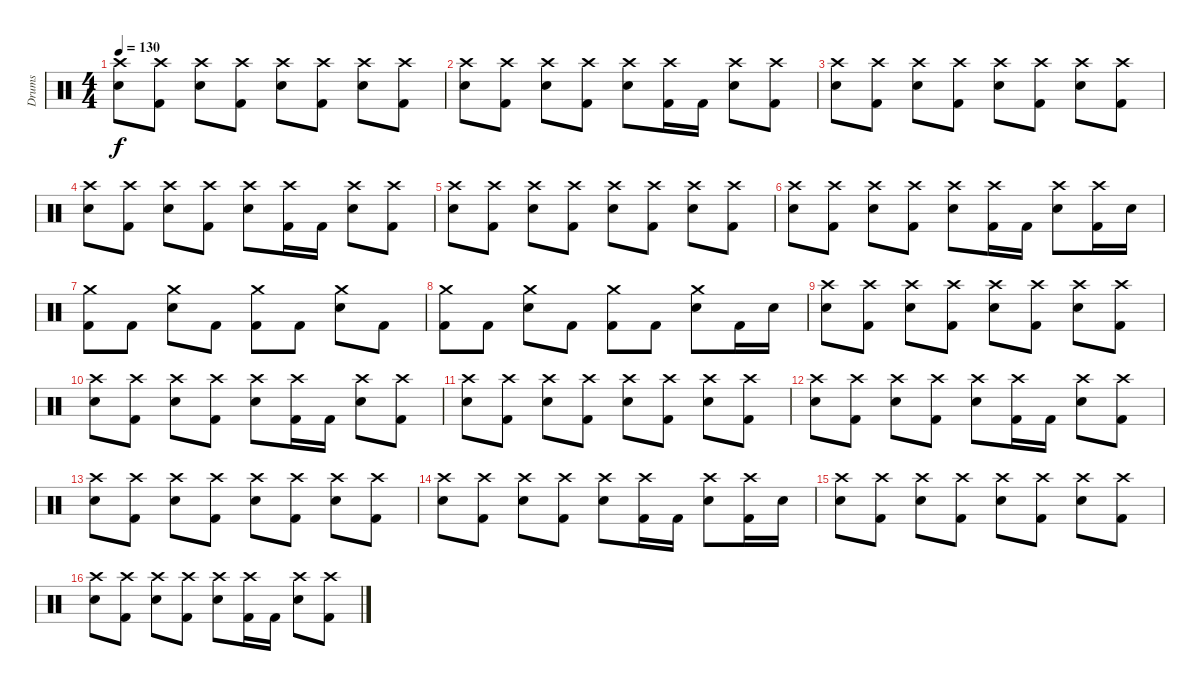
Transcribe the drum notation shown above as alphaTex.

\track ("Drums" "Drums") {instrument percussion}
\staff {score}
\articulation defaults
\ts (4 4)
\tempo 130
\clef neutral
\ks c
("Crash high (hit)" "Snare (hit) 2").8{dy f} ("Crash high (hit)" "Kick (hit) 2").8 ("Crash high (hit)" "Snare (hit) 2").8 ("Crash high (hit)" "Kick (hit) 2").8 ("Crash high (hit)" "Snare (hit) 2").8 ("Crash high (hit)" "Kick (hit) 2").8 ("Crash high (hit)" "Snare (hit) 2").8 ("Crash high (hit)" "Kick (hit) 2").8 |
("Crash high (hit)" "Snare (hit) 2").8 ("Crash high (hit)" "Kick (hit) 2").8 ("Crash high (hit)" "Snare (hit) 2").8 ("Crash high (hit)" "Kick (hit) 2").8 ("Crash high (hit)" "Snare (hit) 2").8 ("Crash high (hit)" "Kick (hit) 2").16 "Kick (hit) 2".16 ("Crash high (hit)" "Snare (hit) 2").8 ("Crash high (hit)" "Kick (hit) 2").8 |
("Crash high (hit)" "Snare (hit) 2").8 ("Crash high (hit)" "Kick (hit) 2").8 ("Crash high (hit)" "Snare (hit) 2").8 ("Crash high (hit)" "Kick (hit) 2").8 ("Crash high (hit)" "Snare (hit) 2").8 ("Crash high (hit)" "Kick (hit) 2").8 ("Crash high (hit)" "Snare (hit) 2").8 ("Crash high (hit)" "Kick (hit) 2").8 |
("Crash high (hit)" "Snare (hit) 2").8 ("Crash high (hit)" "Kick (hit) 2").8 ("Crash high (hit)" "Snare (hit) 2").8 ("Crash high (hit)" "Kick (hit) 2").8 ("Crash high (hit)" "Snare (hit) 2").8 ("Crash high (hit)" "Kick (hit) 2").16 "Kick (hit) 2".16 ("Crash high (hit)" "Snare (hit) 2").8 ("Crash high (hit)" "Kick (hit) 2").8 |
("Crash high (hit)" "Snare (hit) 2").8 ("Crash high (hit)" "Kick (hit) 2").8 ("Crash high (hit)" "Snare (hit) 2").8 ("Crash high (hit)" "Kick (hit) 2").8 ("Crash high (hit)" "Snare (hit) 2").8 ("Crash high (hit)" "Kick (hit) 2").8 ("Crash high (hit)" "Snare (hit) 2").8 ("Crash high (hit)" "Kick (hit) 2").8 |
("Crash high (hit)" "Snare (hit) 2").8 ("Crash high (hit)" "Kick (hit) 2").8 ("Crash high (hit)" "Snare (hit) 2").8 ("Crash high (hit)" "Kick (hit) 2").8 ("Crash high (hit)" "Snare (hit) 2").8 ("Crash high (hit)" "Kick (hit) 2").16 "Kick (hit) 2".16 ("Crash high (hit)" "Snare (hit) 2").8 ("Crash high (hit)" "Kick (hit) 2").16 "Snare (hit) 2".16 |
("Crash medium (hit)" "Kick (hit) 2").8 "Kick (hit) 2".8 ("Crash medium (hit)" "Snare (hit) 2").8 "Kick (hit) 2".8 ("Crash medium (hit)" "Kick (hit) 2").8 "Kick (hit) 2".8 ("Crash medium (hit)" "Snare (hit) 2").8 "Kick (hit) 2".8 |
("Crash medium (hit)" "Kick (hit) 2").8 "Kick (hit) 2".8 ("Crash medium (hit)" "Snare (hit) 2").8 "Kick (hit) 2".8 ("Crash medium (hit)" "Kick (hit) 2").8 "Kick (hit) 2".8 ("Crash medium (hit)" "Snare (hit) 2").8 "Kick (hit) 2".16 "Snare (hit) 2".16 |
("Crash high (hit)" "Snare (hit) 2").8 ("Crash high (hit)" "Kick (hit) 2").8 ("Crash high (hit)" "Snare (hit) 2").8 ("Crash high (hit)" "Kick (hit) 2").8 ("Crash high (hit)" "Snare (hit) 2").8 ("Crash high (hit)" "Kick (hit) 2").8 ("Crash high (hit)" "Snare (hit) 2").8 ("Crash high (hit)" "Kick (hit) 2").8 |
("Crash high (hit)" "Snare (hit) 2").8 ("Crash high (hit)" "Kick (hit) 2").8 ("Crash high (hit)" "Snare (hit) 2").8 ("Crash high (hit)" "Kick (hit) 2").8 ("Crash high (hit)" "Snare (hit) 2").8 ("Crash high (hit)" "Kick (hit) 2").16 "Kick (hit) 2".16 ("Crash high (hit)" "Snare (hit) 2").8 ("Crash high (hit)" "Kick (hit) 2").8 |
("Crash high (hit)" "Snare (hit) 2").8 ("Crash high (hit)" "Kick (hit) 2").8 ("Crash high (hit)" "Snare (hit) 2").8 ("Crash high (hit)" "Kick (hit) 2").8 ("Crash high (hit)" "Snare (hit) 2").8 ("Crash high (hit)" "Kick (hit) 2").8 ("Crash high (hit)" "Snare (hit) 2").8 ("Crash high (hit)" "Kick (hit) 2").8 |
("Crash high (hit)" "Snare (hit) 2").8 ("Crash high (hit)" "Kick (hit) 2").8 ("Crash high (hit)" "Snare (hit) 2").8 ("Crash high (hit)" "Kick (hit) 2").8 ("Crash high (hit)" "Snare (hit) 2").8 ("Crash high (hit)" "Kick (hit) 2").16 "Kick (hit) 2".16 ("Crash high (hit)" "Snare (hit) 2").8 ("Crash high (hit)" "Kick (hit) 2").8 |
("Crash high (hit)" "Snare (hit) 2").8 ("Crash high (hit)" "Kick (hit) 2").8 ("Crash high (hit)" "Snare (hit) 2").8 ("Crash high (hit)" "Kick (hit) 2").8 ("Crash high (hit)" "Snare (hit) 2").8 ("Crash high (hit)" "Kick (hit) 2").8 ("Crash high (hit)" "Snare (hit) 2").8 ("Crash high (hit)" "Kick (hit) 2").8 |
("Crash high (hit)" "Snare (hit) 2").8 ("Crash high (hit)" "Kick (hit) 2").8 ("Crash high (hit)" "Snare (hit) 2").8 ("Crash high (hit)" "Kick (hit) 2").8 ("Crash high (hit)" "Snare (hit) 2").8 ("Crash high (hit)" "Kick (hit) 2").16 "Kick (hit) 2".16 ("Crash high (hit)" "Snare (hit) 2").8 ("Crash high (hit)" "Kick (hit) 2").16 "Snare (hit) 2".16 |
("Crash high (hit)" "Snare (hit) 2").8 ("Crash high (hit)" "Kick (hit) 2").8 ("Crash high (hit)" "Snare (hit) 2").8 ("Crash high (hit)" "Kick (hit) 2").8 ("Crash high (hit)" "Snare (hit) 2").8 ("Crash high (hit)" "Kick (hit) 2").8 ("Crash high (hit)" "Snare (hit) 2").8 ("Crash high (hit)" "Kick (hit) 2").8 |
("Crash high (hit)" "Snare (hit) 2").8 ("Crash high (hit)" "Kick (hit) 2").8 ("Crash high (hit)" "Snare (hit) 2").8 ("Crash high (hit)" "Kick (hit) 2").8 ("Crash high (hit)" "Snare (hit) 2").8 ("Crash high (hit)" "Kick (hit) 2").16 "Kick (hit) 2".16 ("Crash high (hit)" "Snare (hit) 2").8 ("Crash high (hit)" "Kick (hit) 2").8
